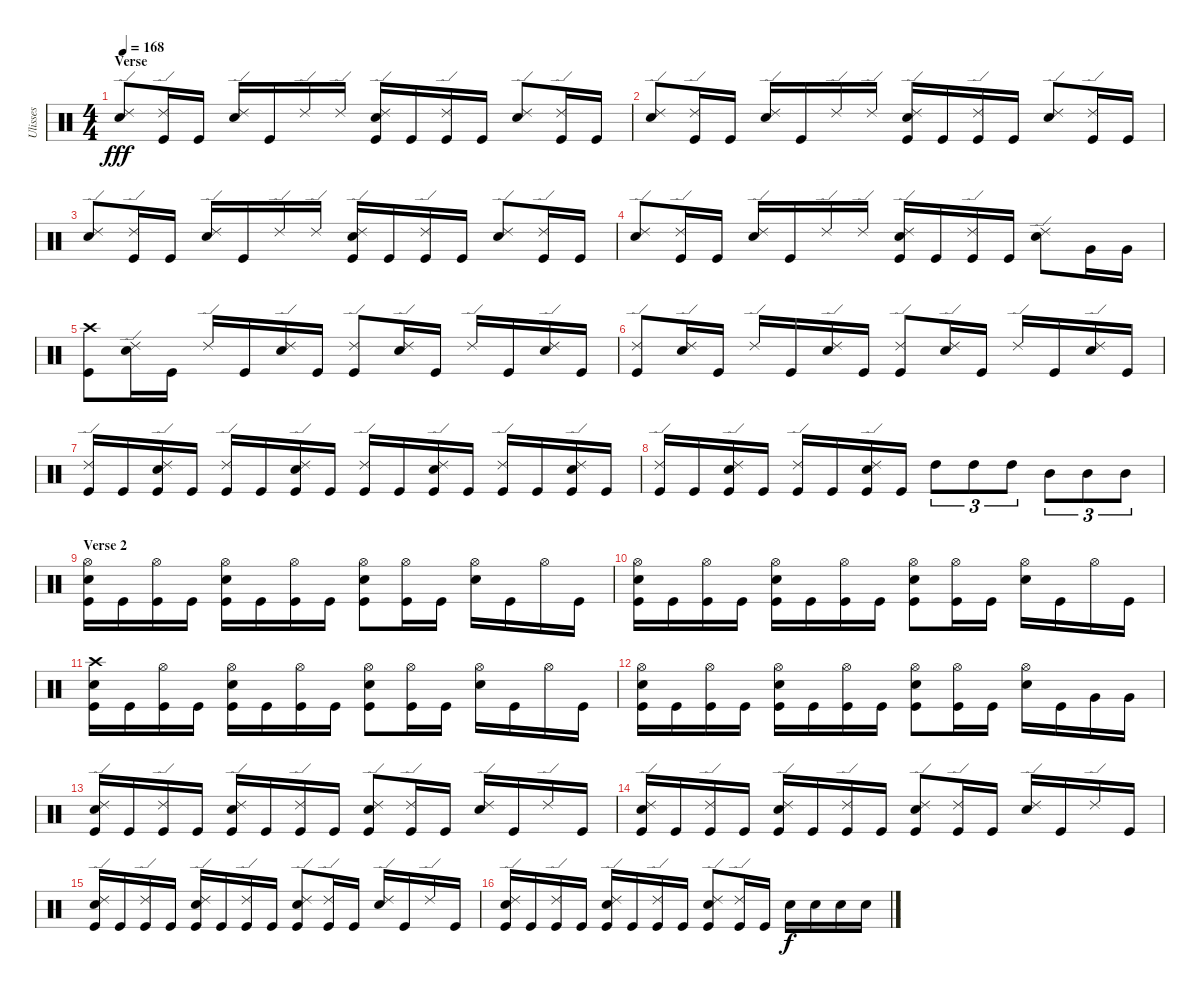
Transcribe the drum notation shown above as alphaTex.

\track ("Ulisses" "Ulisses") {instrument percussion}
\staff {score}
\articulation defaults
\ts (4 4)
\section ("" "Verse")
\tempo 168
\clef neutral
\ks c
("Ride (edge) 2" "Snare (hit) 2").8{dy fff} ("Ride (edge) 2" "Kick (hit)").16 "Kick (hit)".16 ("Ride (edge) 2" "Snare (hit) 2").16 "Kick (hit)".16 "Ride (edge) 2".16 "Ride (edge) 2".16 ("Ride (edge) 2" "Snare (hit) 2" "Kick (hit)").16 "Kick (hit)".16 ("Ride (edge) 2" "Kick (hit)").16 "Kick (hit)".16 ("Ride (edge) 2" "Snare (hit) 2").8 ("Ride (edge) 2" "Kick (hit)").16 "Kick (hit)".16 |
("Ride (edge) 2" "Snare (hit) 2").8 ("Ride (edge) 2" "Kick (hit)").16 "Kick (hit)".16 ("Ride (edge) 2" "Snare (hit) 2").16 "Kick (hit)".16 "Ride (edge) 2".16 "Ride (edge) 2".16 ("Ride (edge) 2" "Snare (hit) 2" "Kick (hit)").16 "Kick (hit)".16 ("Ride (edge) 2" "Kick (hit)").16 "Kick (hit)".16 ("Ride (edge) 2" "Snare (hit) 2").8 ("Ride (edge) 2" "Kick (hit)").16 "Kick (hit)".16 |
("Ride (edge) 2" "Snare (hit) 2").8 ("Ride (edge) 2" "Kick (hit)").16 "Kick (hit)".16 ("Ride (edge) 2" "Snare (hit) 2").16 "Kick (hit)".16 "Ride (edge) 2".16 "Ride (edge) 2".16 ("Ride (edge) 2" "Snare (hit) 2" "Kick (hit)").16 "Kick (hit)".16 ("Ride (edge) 2" "Kick (hit)").16 "Kick (hit)".16 ("Ride (edge) 2" "Snare (hit) 2").8 ("Ride (edge) 2" "Kick (hit)").16 "Kick (hit)".16 |
("Ride (edge) 2" "Snare (hit) 2").8 ("Ride (edge) 2" "Kick (hit)").16 "Kick (hit)".16 ("Ride (edge) 2" "Snare (hit) 2").16 "Kick (hit)".16 "Ride (edge) 2".16 "Ride (edge) 2".16 ("Ride (edge) 2" "Snare (hit) 2" "Kick (hit)").16 "Kick (hit)".16 ("Ride (edge) 2" "Kick (hit)").16 "Kick (hit)".16 ("Ride (edge) 2" "Snare (hit) 2").8 "Very Low Tom (hit)".16 "Very Low Tom (hit)".16 |
("Crash high (hit)" "Kick (hit)").8 ("Ride (edge) 2" "Snare (hit) 2").16 "Kick (hit)".16 "Ride (edge) 2".16 "Kick (hit)".16 ("Ride (edge) 2" "Snare (hit) 2").16 "Kick (hit)".16 ("Ride (edge) 2" "Kick (hit)").8 ("Ride (edge) 2" "Snare (hit) 2").16 "Kick (hit)".16 "Ride (edge) 2".16 "Kick (hit)".16 ("Ride (edge) 2" "Snare (hit) 2").16 "Kick (hit)".16 |
("Ride (edge) 2" "Kick (hit)").8 ("Ride (edge) 2" "Snare (hit) 2").16 "Kick (hit)".16 "Ride (edge) 2".16 "Kick (hit)".16 ("Ride (edge) 2" "Snare (hit) 2").16 "Kick (hit)".16 ("Ride (edge) 2" "Kick (hit)").8 ("Ride (edge) 2" "Snare (hit) 2").16 "Kick (hit)".16 "Ride (edge) 2".16 "Kick (hit)".16 ("Ride (edge) 2" "Snare (hit) 2").16 "Kick (hit)".16 |
("Ride (edge) 2" "Kick (hit)").16 "Kick (hit)".16 ("Ride (edge) 2" "Snare (hit) 2" "Kick (hit)").16 "Kick (hit)".16 ("Ride (edge) 2" "Kick (hit)").16 "Kick (hit)".16 ("Ride (edge) 2" "Snare (hit) 2" "Kick (hit)").16 "Kick (hit)".16 ("Ride (edge) 2" "Kick (hit)").16 "Kick (hit)".16 ("Ride (edge) 2" "Snare (hit) 2" "Kick (hit)").16 "Kick (hit)".16 ("Ride (edge) 2" "Kick (hit)").16 "Kick (hit)".16 ("Ride (edge) 2" "Snare (hit) 2" "Kick (hit)").16 "Kick (hit)".16 |
("Ride (edge) 2" "Kick (hit)").16 "Kick (hit)".16 ("Ride (edge) 2" "Snare (hit) 2" "Kick (hit)").16 "Kick (hit)".16 ("Ride (edge) 2" "Kick (hit)").16 "Kick (hit)".16 ("Ride (edge) 2" "Snare (hit) 2" "Kick (hit)").16 "Kick (hit)".16 "High Tom (hit)".8{tu (3 2)} "High Tom (hit)".8{tu (3 2)} "High Tom (hit)".8{tu (3 2)} "Mid Tom (hit)".8{tu (3 2)} "Mid Tom (hit)".8{tu (3 2)} "Mid Tom (hit)".8{tu (3 2)} |
\section ("" "Verse 2")
("Hi-Hat (open)" "Snare (hit) 2" "Kick (hit)").16 "Kick (hit)".16 ("Hi-Hat (open)" "Kick (hit)").16 "Kick (hit)".16 ("Hi-Hat (open)" "Snare (hit) 2" "Kick (hit)").16 "Kick (hit)".16 ("Hi-Hat (open)" "Kick (hit)").16 "Kick (hit)".16 ("Hi-Hat (open)" "Snare (hit) 2" "Kick (hit)").8 ("Hi-Hat (open)" "Kick (hit)").16 "Kick (hit)".16 ("Hi-Hat (open)" "Snare (hit) 2").16 "Kick (hit)".16 "Hi-Hat (open)".16 "Kick (hit)".16 |
("Hi-Hat (open)" "Snare (hit) 2" "Kick (hit)").16 "Kick (hit)".16 ("Hi-Hat (open)" "Kick (hit)").16 "Kick (hit)".16 ("Hi-Hat (open)" "Snare (hit) 2" "Kick (hit)").16 "Kick (hit)".16 ("Hi-Hat (open)" "Kick (hit)").16 "Kick (hit)".16 ("Hi-Hat (open)" "Snare (hit) 2" "Kick (hit)").8 ("Hi-Hat (open)" "Kick (hit)").16 "Kick (hit)".16 ("Hi-Hat (open)" "Snare (hit) 2").16 "Kick (hit)".16 "Hi-Hat (open)".16 "Kick (hit)".16 |
("Crash high (hit)" "Snare (hit) 2" "Kick (hit)").16 "Kick (hit)".16 ("Hi-Hat (open)" "Kick (hit)").16 "Kick (hit)".16 ("Hi-Hat (open)" "Snare (hit) 2" "Kick (hit)").16 "Kick (hit)".16 ("Hi-Hat (open)" "Kick (hit)").16 "Kick (hit)".16 ("Hi-Hat (open)" "Snare (hit) 2" "Kick (hit)").8 ("Hi-Hat (open)" "Kick (hit)").16 "Kick (hit)".16 ("Hi-Hat (open)" "Snare (hit) 2").16 "Kick (hit)".16 "Hi-Hat (open)".16 "Kick (hit)".16 |
("Hi-Hat (open)" "Snare (hit) 2" "Kick (hit)").16 "Kick (hit)".16 ("Hi-Hat (open)" "Kick (hit)").16 "Kick (hit)".16 ("Hi-Hat (open)" "Snare (hit) 2" "Kick (hit)").16 "Kick (hit)".16 ("Hi-Hat (open)" "Kick (hit)").16 "Kick (hit)".16 ("Hi-Hat (open)" "Snare (hit) 2" "Kick (hit)").8 ("Hi-Hat (open)" "Kick (hit)").16 "Kick (hit)".16 ("Hi-Hat (open)" "Snare (hit) 2").16 "Kick (hit)".16 "Very Low Tom (hit)".16 "Very Low Tom (hit)".16 |
("Ride (edge) 2" "Snare (hit) 2" "Kick (hit)").16 "Kick (hit)".16 ("Ride (edge) 2" "Kick (hit)").16 "Kick (hit)".16 ("Ride (edge) 2" "Snare (hit) 2" "Kick (hit)").16 "Kick (hit)".16 ("Ride (edge) 2" "Kick (hit)").16 "Kick (hit)".16 ("Ride (edge) 2" "Snare (hit) 2" "Kick (hit)").8 ("Ride (edge) 2" "Kick (hit)").16 "Kick (hit)".16 ("Ride (edge) 2" "Snare (hit) 2").16 "Kick (hit)".16 "Ride (edge) 2".16 "Kick (hit)".16 |
("Ride (edge) 2" "Snare (hit) 2" "Kick (hit)").16 "Kick (hit)".16 ("Ride (edge) 2" "Kick (hit)").16 "Kick (hit)".16 ("Ride (edge) 2" "Snare (hit) 2" "Kick (hit)").16 "Kick (hit)".16 ("Ride (edge) 2" "Kick (hit)").16 "Kick (hit)".16 ("Ride (edge) 2" "Snare (hit) 2" "Kick (hit)").8 ("Ride (edge) 2" "Kick (hit)").16 "Kick (hit)".16 ("Ride (edge) 2" "Snare (hit) 2").16 "Kick (hit)".16 "Ride (edge) 2".16 "Kick (hit)".16 |
("Ride (edge) 2" "Snare (hit) 2" "Kick (hit)").16 "Kick (hit)".16 ("Ride (edge) 2" "Kick (hit)").16 "Kick (hit)".16 ("Ride (edge) 2" "Snare (hit) 2" "Kick (hit)").16 "Kick (hit)".16 ("Ride (edge) 2" "Kick (hit)").16 "Kick (hit)".16 ("Ride (edge) 2" "Snare (hit) 2" "Kick (hit)").8 ("Ride (edge) 2" "Kick (hit)").16 "Kick (hit)".16 ("Ride (edge) 2" "Snare (hit) 2").16 "Kick (hit)".16 "Ride (edge) 2".16 "Kick (hit)".16 |
("Ride (edge) 2" "Snare (hit) 2" "Kick (hit)").16 "Kick (hit)".16 ("Ride (edge) 2" "Kick (hit)").16 "Kick (hit)".16 ("Ride (edge) 2" "Snare (hit) 2" "Kick (hit)").16 "Kick (hit)".16 ("Ride (edge) 2" "Kick (hit)").16 "Kick (hit)".16 ("Ride (edge) 2" "Snare (hit) 2" "Kick (hit)").8 ("Ride (edge) 2" "Kick (hit)").16 "Kick (hit)".16 "Snare (hit) 2".16{dy f} "Snare (hit) 2".16 "Snare (hit) 2".16 "Snare (hit) 2".16
